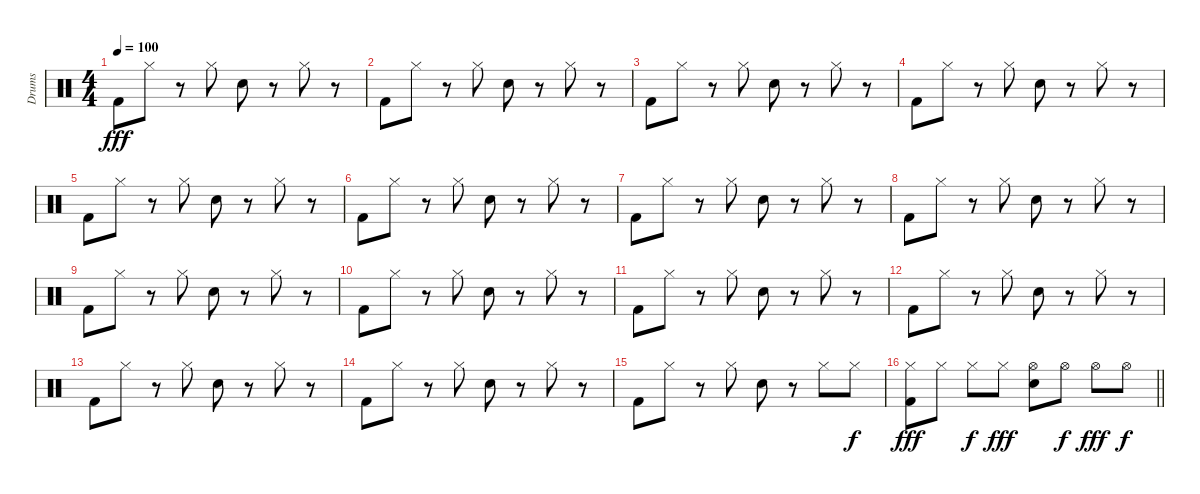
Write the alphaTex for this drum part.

\track ("Drums" "Drums") {instrument percussion}
\staff {score}
\articulation defaults
\ts (4 4)
\tempo 100
\clef neutral
\ks c "Kick (hit) 2".8{dy fff} "Hi-Hat (closed)".8
r.8 "Hi-Hat (closed)".8 "Electric Snare (hit)".8 r.8 "Hi-Hat (closed)".8 r.8 |
"Kick (hit) 2".8 "Hi-Hat (closed)".8 r.8 "Hi-Hat (closed)".8 "Electric Snare (hit)".8 r.8 "Hi-Hat (closed)".8 r.8 |
"Kick (hit) 2".8 "Hi-Hat (closed)".8 r.8 "Hi-Hat (closed)".8 "Electric Snare (hit)".8 r.8 "Hi-Hat (closed)".8 r.8 |
"Kick (hit) 2".8 "Hi-Hat (closed)".8 r.8 "Hi-Hat (closed)".8 "Electric Snare (hit)".8 r.8 "Hi-Hat (closed)".8 r.8 |
"Kick (hit) 2".8 "Hi-Hat (closed)".8 r.8 "Hi-Hat (closed)".8 "Electric Snare (hit)".8 r.8 "Hi-Hat (closed)".8 r.8 |
"Kick (hit) 2".8 "Hi-Hat (closed)".8 r.8 "Hi-Hat (closed)".8 "Electric Snare (hit)".8 r.8 "Hi-Hat (closed)".8 r.8 |
"Kick (hit) 2".8 "Hi-Hat (closed)".8 r.8 "Hi-Hat (closed)".8 "Electric Snare (hit)".8 r.8 "Hi-Hat (closed)".8 r.8 |
"Kick (hit) 2".8 "Hi-Hat (closed)".8 r.8 "Hi-Hat (closed)".8 "Electric Snare (hit)".8 r.8 "Hi-Hat (closed)".8 r.8 |
"Kick (hit) 2".8 "Hi-Hat (closed)".8 r.8 "Hi-Hat (closed)".8 "Electric Snare (hit)".8 r.8 "Hi-Hat (closed)".8 r.8 |
"Kick (hit) 2".8 "Hi-Hat (closed)".8 r.8 "Hi-Hat (closed)".8 "Electric Snare (hit)".8 r.8 "Hi-Hat (closed)".8 r.8 |
"Kick (hit) 2".8 "Hi-Hat (closed)".8 r.8 "Hi-Hat (closed)".8 "Electric Snare (hit)".8 r.8 "Hi-Hat (closed)".8 r.8 |
"Kick (hit) 2".8 "Hi-Hat (closed)".8 r.8 "Hi-Hat (closed)".8 "Electric Snare (hit)".8 r.8 "Hi-Hat (closed)".8 r.8 |
"Kick (hit) 2".8 "Hi-Hat (closed)".8 r.8 "Hi-Hat (closed)".8 "Electric Snare (hit)".8 r.8 "Hi-Hat (closed)".8 r.8 |
"Kick (hit) 2".8 "Hi-Hat (closed)".8 r.8 "Hi-Hat (closed)".8 "Electric Snare (hit)".8 r.8 "Hi-Hat (closed)".8 r.8 |
"Kick (hit) 2".8 "Hi-Hat (closed)".8 r.8 "Hi-Hat (closed)".8 "Electric Snare (hit)".8 r.8 "Hi-Hat (closed)".8 "Hi-Hat (closed)".8{dy f} |
\barLineRight lightlight
("Hi-Hat (closed)" "Kick (hit) 2").8{dy fff} "Hi-Hat (closed)".8 "Hi-Hat (closed)".8{dy f} "Hi-Hat (closed)".8{dy fff} ("Hi-Hat (open)" "Electric Snare (hit)").8 "Hi-Hat (open)".8{dy f} "Hi-Hat (open)".8{dy fff} "Hi-Hat (open)".8{dy f}
